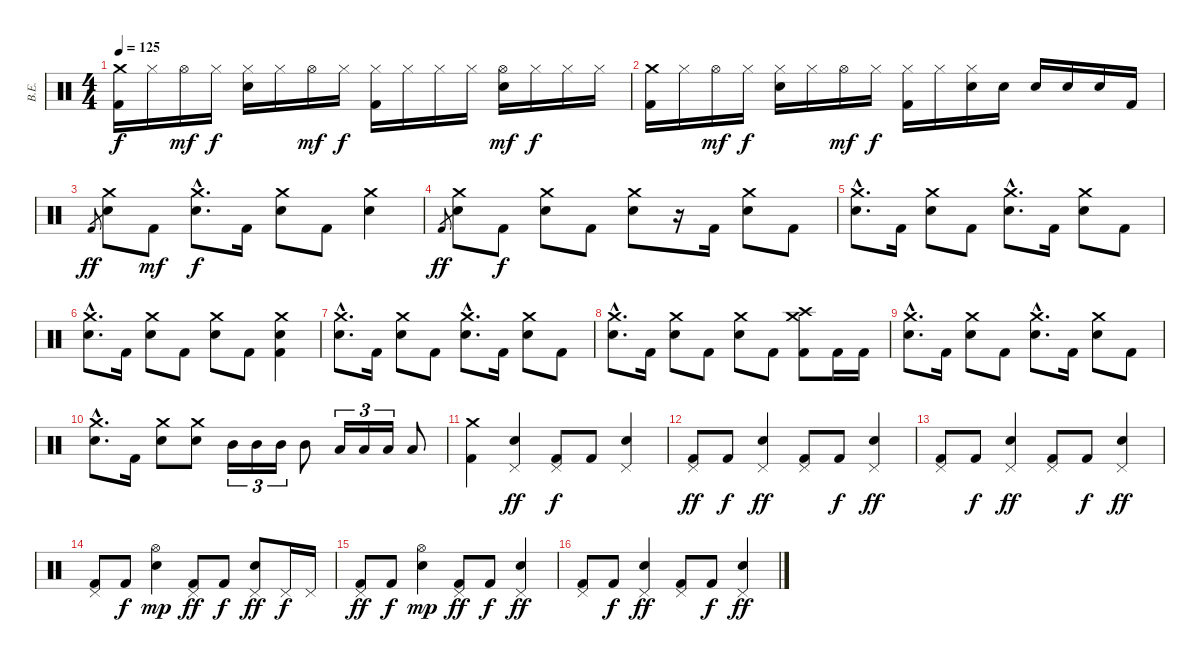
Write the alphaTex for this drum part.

\track ("В.Е." "В.Е.") {instrument percussion}
\staff {score}
\articulation defaults
\ts (4 4)
\tempo 125
\clef neutral
\ks c
("Crash medium (hit)" "Kick (hit) 2").16{dy f} "Hi-Hat (closed)".16 "Hi-Hat (open)".16{dy mf} "Hi-Hat (closed)".16{dy f} ("Hi-Hat (closed)" "Electric Snare (hit)").16 "Hi-Hat (closed)".16 "Hi-Hat (open)".16{dy mf} "Hi-Hat (closed)".16{dy f} ("Hi-Hat (closed)" "Kick (hit) 2").16 "Hi-Hat (closed)".16 "Hi-Hat (closed)".16 "Hi-Hat (closed)".16 ("Hi-Hat (open)" "Electric Snare (hit)").16{dy mf} "Hi-Hat (closed)".16{dy f} "Hi-Hat (closed)".16 "Hi-Hat (closed)".16 |
("Crash medium (hit)" "Kick (hit) 2").16 "Hi-Hat (closed)".16 "Hi-Hat (open)".16{dy mf} "Hi-Hat (closed)".16{dy f} ("Hi-Hat (closed)" "Electric Snare (hit)").16 "Hi-Hat (closed)".16 "Hi-Hat (open)".16{dy mf} "Hi-Hat (closed)".16{dy f} ("Hi-Hat (closed)" "Kick (hit) 2").16 "Hi-Hat (closed)".16 ("Hi-Hat (closed)" "Electric Snare (hit)").16 "Electric Snare (hit)".16 "Electric Snare (hit)".16 "Electric Snare (hit)".16 "Electric Snare (hit)".16 "Kick (hit) 2".16 |
"Kick (hit) 2".8{gr dy ff} ("Crash medium (hit)" "Electric Snare (hit)").8 "Kick (hit) 2".8{dy mf} ("Crash medium (hit)"{hac} "Electric Snare (hit)"{hac}).8{d dy f} "Kick (hit) 2".16 ("Crash medium (hit)" "Electric Snare (hit)").8 "Kick (hit) 2".8 ("Crash medium (hit)" "Electric Snare (hit)").4 |
"Kick (hit) 2".8{gr dy ff} ("Crash medium (hit)" "Electric Snare (hit)").8 "Kick (hit) 2".8{dy f} ("Crash medium (hit)" "Electric Snare (hit)").8 "Kick (hit) 2".8 ("Crash medium (hit)" "Electric Snare (hit)").8 r.16 "Kick (hit) 2".16 ("Crash medium (hit)" "Electric Snare (hit)").8 "Kick (hit) 2".8 |
("Crash medium (hit)"{hac} "Electric Snare (hit)"{hac}).8{d} "Kick (hit) 2".16 ("Crash medium (hit)" "Electric Snare (hit)").8 "Kick (hit) 2".8 ("Crash medium (hit)"{hac} "Electric Snare (hit)"{hac}).8{d} "Kick (hit) 2".16 ("Crash medium (hit)" "Electric Snare (hit)").8 "Kick (hit) 2".8 |
("Crash medium (hit)"{hac} "Electric Snare (hit)"{hac}).8{d} "Kick (hit) 2".16 ("Crash medium (hit)" "Electric Snare (hit)").8 "Kick (hit) 2".8 ("Crash medium (hit)" "Electric Snare (hit)").8 "Kick (hit) 2".8 ("Crash medium (hit)" "Kick (hit) 2" "Electric Snare (hit)").4 |
("Crash medium (hit)"{hac} "Electric Snare (hit)"{hac}).8{d} "Kick (hit) 2".16 ("Crash medium (hit)" "Electric Snare (hit)").8 "Kick (hit) 2".8 ("Crash medium (hit)"{hac} "Electric Snare (hit)"{hac}).8{d} "Kick (hit) 2".16 ("Crash medium (hit)" "Electric Snare (hit)").8 "Kick (hit) 2".8 |
("Crash medium (hit)"{hac} "Electric Snare (hit)"{hac}).8{d} "Kick (hit) 2".16 ("Crash medium (hit)" "Electric Snare (hit)").8 "Kick (hit) 2".8 ("Crash medium (hit)" "Electric Snare (hit)").8 "Kick (hit) 2".8 ("Crash medium (hit)" "Kick (hit) 2" "Crash high (hit)").8 "Kick (hit) 2".16 "Kick (hit) 2".16 |
("Crash medium (hit)"{hac} "Electric Snare (hit)"{hac}).8{d} "Kick (hit) 2".16 ("Crash medium (hit)" "Electric Snare (hit)").8 "Kick (hit) 2".8 ("Crash medium (hit)"{hac} "Electric Snare (hit)"{hac}).8{d} "Kick (hit) 2".16 ("Crash medium (hit)" "Electric Snare (hit)").8 "Kick (hit) 2".8 |
("Crash medium (hit)"{hac} "Electric Snare (hit)"{hac}).8{d} "Kick (hit) 2".16 ("Crash medium (hit)" "Electric Snare (hit)").8 ("Crash medium (hit)" "Electric Snare (hit)").8 "Mid Tom (hit)".16{tu (3 2)} "Mid Tom (hit)".16{tu (3 2)} "Mid Tom (hit)".16{tu (3 2)} "Mid Tom (hit)".8 "Low Tom (hit)".16{tu (3 2)} "Low Tom (hit)".16{tu (3 2)} "Low Tom (hit)".16{tu (3 2)} "Low Tom (hit)".8 |
("Crash medium (hit)" "Kick (hit) 2").4 ("Pedal Hi-Hat (hit)" "Electric Snare (hit)").4{dy ff} ("Pedal Hi-Hat (hit)" "Kick (hit) 2").8{dy f} "Kick (hit) 2".8 ("Pedal Hi-Hat (hit)" "Electric Snare (hit)").4 |
("Pedal Hi-Hat (hit)" "Kick (hit) 2").8{dy ff} "Kick (hit) 2".8{dy f} ("Pedal Hi-Hat (hit)" "Electric Snare (hit)").4{dy ff} ("Pedal Hi-Hat (hit)" "Kick (hit) 2").8 "Kick (hit) 2".8{dy f} ("Pedal Hi-Hat (hit)" "Electric Snare (hit)").4{dy ff} |
("Pedal Hi-Hat (hit)" "Kick (hit) 2").8 "Kick (hit) 2".8{dy f} ("Pedal Hi-Hat (hit)" "Electric Snare (hit)").4{dy ff} ("Pedal Hi-Hat (hit)" "Kick (hit) 2").8 "Kick (hit) 2".8{dy f} ("Pedal Hi-Hat (hit)" "Electric Snare (hit)").4{dy ff} |
("Pedal Hi-Hat (hit)" "Kick (hit) 2").8 "Kick (hit) 2".8{dy f} ("Hi-Hat (open)" "Electric Snare (hit)").4{dy mp} ("Pedal Hi-Hat (hit)" "Kick (hit) 2").8{dy ff} "Kick (hit) 2".8{dy f} ("Pedal Hi-Hat (hit)" "Electric Snare (hit)").8{dy ff} "Pedal Hi-Hat (hit)".16{dy f} "Pedal Hi-Hat (hit)".16 |
("Pedal Hi-Hat (hit)" "Kick (hit) 2").8{dy ff} "Kick (hit) 2".8{dy f} ("Hi-Hat (open)" "Electric Snare (hit)").4{dy mp} ("Pedal Hi-Hat (hit)" "Kick (hit) 2").8{dy ff} "Kick (hit) 2".8{dy f} ("Pedal Hi-Hat (hit)" "Electric Snare (hit)").4{dy ff} |
("Pedal Hi-Hat (hit)" "Kick (hit) 2").8 "Kick (hit) 2".8{dy f} ("Pedal Hi-Hat (hit)" "Electric Snare (hit)").4{dy ff} ("Pedal Hi-Hat (hit)" "Kick (hit) 2").8 "Kick (hit) 2".8{dy f} ("Pedal Hi-Hat (hit)" "Electric Snare (hit)").4{dy ff}
